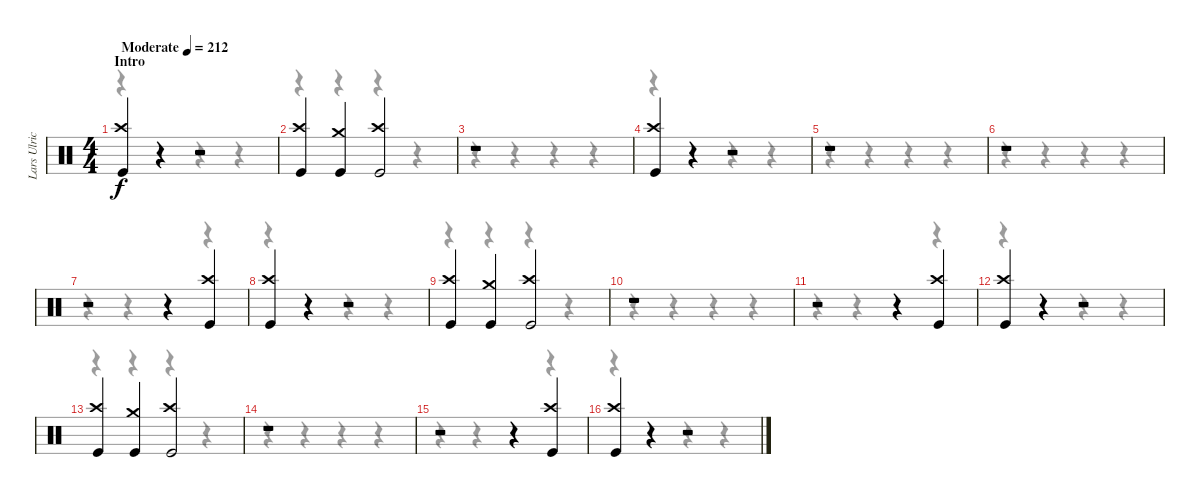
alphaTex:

\track ("Lars Ulrich" "Lars Ulric") {instrument percussion}
\staff {score}
\articulation defaults
\voice
\ts (4 4)
\section ("" "Intro")
\tempo (212 "Moderate")
\clef neutral
\ks c
("Crash high (hit)" "Kick (hit)").4{dy f} r.4 r.2 |
("Crash high (hit)" "Kick (hit)").4 ("Crash medium (hit)" "Kick (hit)").4 ("Crash high (hit)" "Kick (hit)").2 |
r.1 |
("Crash high (hit)" "Kick (hit)").4 r.4 r.2 |
r.1 |
r.1 |
r.2 r.4 ("Crash high (hit)" "Kick (hit)").4 |
("Crash high (hit)" "Kick (hit)").4 r.4 r.2 |
("Crash high (hit)" "Kick (hit)").4 ("Crash medium (hit)" "Kick (hit)").4 ("Crash high (hit)" "Kick (hit)").2 |
r.1 |
r.2 r.4 ("Crash high (hit)" "Kick (hit)").4 |
("Crash high (hit)" "Kick (hit)").4 r.4 r.2 |
("Crash high (hit)" "Kick (hit)").4 ("Crash medium (hit)" "Kick (hit)").4 ("Crash high (hit)" "Kick (hit)").2 |
r.1 |
r.2 r.4 ("Crash high (hit)" "Kick (hit)").4 |
("Crash high (hit)" "Kick (hit)").4 r.4 r.2
\voice
\clef neutral
\ottava regular
\simile none
\ks c
r.4{dy f} r.4 r.4 r.4 |
r.4 r.4 r.4 r.4 |
r.4 r.4 r.4 r.4 |
r.4 r.4 r.4 r.4 |
r.4 r.4 r.4 r.4 |
r.4 r.4 r.4 r.4 |
r.4 r.4 r.4 r.4 |
r.4 r.4 r.4 r.4 |
r.4 r.4 r.4 r.4 |
r.4 r.4 r.4 r.4 |
r.4 r.4 r.4 r.4 |
r.4 r.4 r.4 r.4 |
r.4 r.4 r.4 r.4 |
r.4 r.4 r.4 r.4 |
r.4 r.4 r.4 r.4 |
r.4 r.4 r.4 r.4
